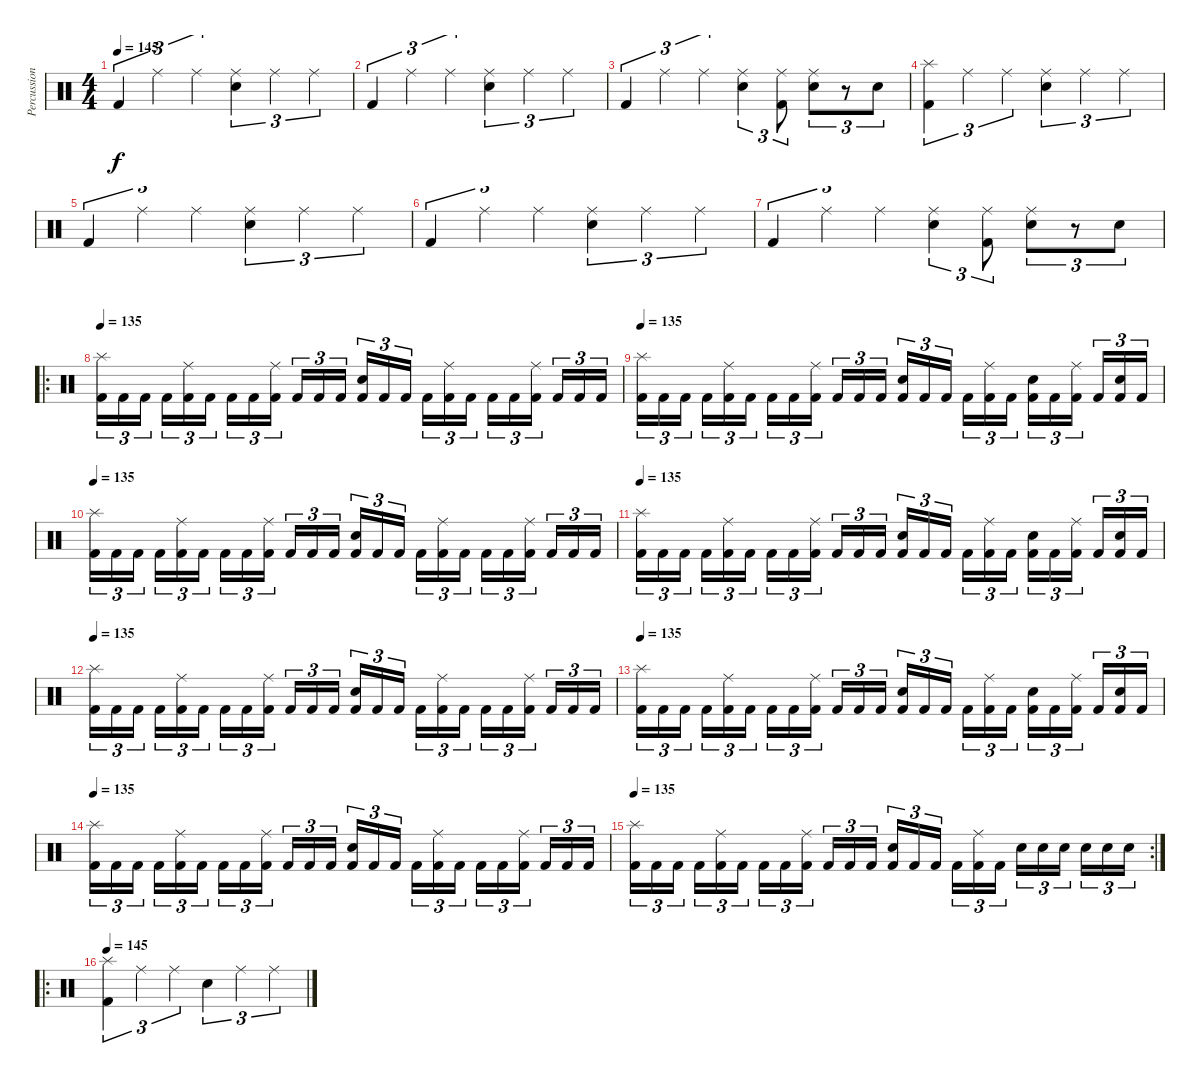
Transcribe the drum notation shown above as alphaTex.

\track ("Percussions" "Percussion") {instrument percussion}
\staff {score}
\articulation defaults
\ts (4 4)
\tempo 145
\clef neutral
\ks c "Kick (hit) 2".4{tu (3 2) dy f} "Ride (middle)".4{tu (3 2)} "Ride (middle)".4{tu (3 2)}
("Ride (middle)" "Electric Snare (hit)").4{tu (3 2)} "Ride (middle)".4{tu (3 2)} "Ride (middle)".4{tu (3 2)} |
"Kick (hit) 2".4{tu (3 2)} "Ride (middle)".4{tu (3 2)} "Ride (middle)".4{tu (3 2)} ("Ride (middle)" "Electric Snare (hit)").4{tu (3 2)} "Ride (middle)".4{tu (3 2)} "Ride (middle)".4{tu (3 2)} |
"Kick (hit) 2".4{tu (3 2)} "Ride (middle)".4{tu (3 2)} "Ride (middle)".4{tu (3 2)} ("Ride (middle)" "Electric Snare (hit)").4{tu (3 2)} ("Ride (middle)" "Kick (hit) 2").8{tu (3 2)} ("Ride (middle)" "Electric Snare (hit)").8{tu (3 2)} r.8{tu (3 2)} "Electric Snare (hit)".8{tu (3 2)} |
("Splash (hit)" "Kick (hit) 2").4{tu (3 2)} "Ride (middle)".4{tu (3 2)} "Ride (middle)".4{tu (3 2)} ("Ride (middle)" "Electric Snare (hit)").4{tu (3 2)} "Ride (middle)".4{tu (3 2)} "Ride (middle)".4{tu (3 2)} |
"Kick (hit) 2".4{tu (3 2)} "Ride (middle)".4{tu (3 2)} "Ride (middle)".4{tu (3 2)} ("Ride (middle)" "Electric Snare (hit)").4{tu (3 2)} "Ride (middle)".4{tu (3 2)} "Ride (middle)".4{tu (3 2)} |
"Kick (hit) 2".4{tu (3 2)} "Ride (middle)".4{tu (3 2)} "Ride (middle)".4{tu (3 2)} ("Ride (middle)" "Electric Snare (hit)").4{tu (3 2)} "Ride (middle)".4{tu (3 2)} "Ride (middle)".4{tu (3 2)} |
"Kick (hit) 2".4{tu (3 2)} "Ride (middle)".4{tu (3 2)} "Ride (middle)".4{tu (3 2)} ("Ride (middle)" "Electric Snare (hit)").4{tu (3 2)} ("Ride (middle)" "Kick (hit) 2").8{tu (3 2)} ("Ride (middle)" "Electric Snare (hit)").8{tu (3 2)} r.8{tu (3 2)} "Electric Snare (hit)".8{tu (3 2)} |
\ro
\tempo 135
("Splash (hit)" "Kick (hit) 2").16{tu (3 2)} "Kick (hit) 2".16{tu (3 2)} "Kick (hit) 2".16{tu (3 2)} "Kick (hit) 2".16{tu (3 2)} ("Ride (middle)" "Kick (hit) 2").16{tu (3 2)} "Kick (hit) 2".16{tu (3 2)} "Kick (hit) 2".16{tu (3 2)} "Kick (hit) 2".16{tu (3 2)} ("Ride (middle)" "Kick (hit) 2").16{tu (3 2)} "Kick (hit) 2".16{tu (3 2)} "Kick (hit) 2".16{tu (3 2)} "Kick (hit) 2".16{tu (3 2)} ("Electric Snare (hit)" "Kick (hit) 2").16{tu (3 2)} "Kick (hit) 2".16{tu (3 2)} "Kick (hit) 2".16{tu (3 2)} "Kick (hit) 2".16{tu (3 2)} ("Ride (middle)" "Kick (hit) 2").16{tu (3 2)} "Kick (hit) 2".16{tu (3 2)} "Kick (hit) 2".16{tu (3 2)} "Kick (hit) 2".16{tu (3 2)} ("Ride (middle)" "Kick (hit) 2").16{tu (3 2)} "Kick (hit) 2".16{tu (3 2)} "Kick (hit) 2".16{tu (3 2)} "Kick (hit) 2".16{tu (3 2)} |
\tempo 135
("Splash (hit)" "Kick (hit) 2").16{tu (3 2)} "Kick (hit) 2".16{tu (3 2)} "Kick (hit) 2".16{tu (3 2)} "Kick (hit) 2".16{tu (3 2)} ("Ride (middle)" "Kick (hit) 2").16{tu (3 2)} "Kick (hit) 2".16{tu (3 2)} "Kick (hit) 2".16{tu (3 2)} "Kick (hit) 2".16{tu (3 2)} ("Ride (middle)" "Kick (hit) 2").16{tu (3 2)} "Kick (hit) 2".16{tu (3 2)} "Kick (hit) 2".16{tu (3 2)} "Kick (hit) 2".16{tu (3 2)} ("Electric Snare (hit)" "Kick (hit) 2").16{tu (3 2)} "Kick (hit) 2".16{tu (3 2)} "Kick (hit) 2".16{tu (3 2)} "Kick (hit) 2".16{tu (3 2)} ("Ride (middle)" "Kick (hit) 2").16{tu (3 2)} "Kick (hit) 2".16{tu (3 2)} ("Electric Snare (hit)" "Kick (hit) 2").16{tu (3 2)} "Kick (hit) 2".16{tu (3 2)} ("Ride (middle)" "Kick (hit) 2").16{tu (3 2)} "Kick (hit) 2".16{tu (3 2)} ("Electric Snare (hit)" "Kick (hit) 2").16{tu (3 2)} "Kick (hit) 2".16{tu (3 2)} |
\tempo 135
("Splash (hit)" "Kick (hit) 2").16{tu (3 2)} "Kick (hit) 2".16{tu (3 2)} "Kick (hit) 2".16{tu (3 2)} "Kick (hit) 2".16{tu (3 2)} ("Ride (middle)" "Kick (hit) 2").16{tu (3 2)} "Kick (hit) 2".16{tu (3 2)} "Kick (hit) 2".16{tu (3 2)} "Kick (hit) 2".16{tu (3 2)} ("Ride (middle)" "Kick (hit) 2").16{tu (3 2)} "Kick (hit) 2".16{tu (3 2)} "Kick (hit) 2".16{tu (3 2)} "Kick (hit) 2".16{tu (3 2)} ("Electric Snare (hit)" "Kick (hit) 2").16{tu (3 2)} "Kick (hit) 2".16{tu (3 2)} "Kick (hit) 2".16{tu (3 2)} "Kick (hit) 2".16{tu (3 2)} ("Ride (middle)" "Kick (hit) 2").16{tu (3 2)} "Kick (hit) 2".16{tu (3 2)} "Kick (hit) 2".16{tu (3 2)} "Kick (hit) 2".16{tu (3 2)} ("Ride (middle)" "Kick (hit) 2").16{tu (3 2)} "Kick (hit) 2".16{tu (3 2)} "Kick (hit) 2".16{tu (3 2)} "Kick (hit) 2".16{tu (3 2)} |
\tempo 135
("Splash (hit)" "Kick (hit) 2").16{tu (3 2)} "Kick (hit) 2".16{tu (3 2)} "Kick (hit) 2".16{tu (3 2)} "Kick (hit) 2".16{tu (3 2)} ("Ride (middle)" "Kick (hit) 2").16{tu (3 2)} "Kick (hit) 2".16{tu (3 2)} "Kick (hit) 2".16{tu (3 2)} "Kick (hit) 2".16{tu (3 2)} ("Ride (middle)" "Kick (hit) 2").16{tu (3 2)} "Kick (hit) 2".16{tu (3 2)} "Kick (hit) 2".16{tu (3 2)} "Kick (hit) 2".16{tu (3 2)} ("Electric Snare (hit)" "Kick (hit) 2").16{tu (3 2)} "Kick (hit) 2".16{tu (3 2)} "Kick (hit) 2".16{tu (3 2)} "Kick (hit) 2".16{tu (3 2)} ("Ride (middle)" "Kick (hit) 2").16{tu (3 2)} "Kick (hit) 2".16{tu (3 2)} ("Electric Snare (hit)" "Kick (hit) 2").16{tu (3 2)} "Kick (hit) 2".16{tu (3 2)} ("Ride (middle)" "Kick (hit) 2").16{tu (3 2)} "Kick (hit) 2".16{tu (3 2)} ("Electric Snare (hit)" "Kick (hit) 2").16{tu (3 2)} "Kick (hit) 2".16{tu (3 2)} |
\tempo 135
("Splash (hit)" "Kick (hit) 2").16{tu (3 2)} "Kick (hit) 2".16{tu (3 2)} "Kick (hit) 2".16{tu (3 2)} "Kick (hit) 2".16{tu (3 2)} ("Ride (middle)" "Kick (hit) 2").16{tu (3 2)} "Kick (hit) 2".16{tu (3 2)} "Kick (hit) 2".16{tu (3 2)} "Kick (hit) 2".16{tu (3 2)} ("Ride (middle)" "Kick (hit) 2").16{tu (3 2)} "Kick (hit) 2".16{tu (3 2)} "Kick (hit) 2".16{tu (3 2)} "Kick (hit) 2".16{tu (3 2)} ("Electric Snare (hit)" "Kick (hit) 2").16{tu (3 2)} "Kick (hit) 2".16{tu (3 2)} "Kick (hit) 2".16{tu (3 2)} "Kick (hit) 2".16{tu (3 2)} ("Ride (middle)" "Kick (hit) 2").16{tu (3 2)} "Kick (hit) 2".16{tu (3 2)} "Kick (hit) 2".16{tu (3 2)} "Kick (hit) 2".16{tu (3 2)} ("Ride (middle)" "Kick (hit) 2").16{tu (3 2)} "Kick (hit) 2".16{tu (3 2)} "Kick (hit) 2".16{tu (3 2)} "Kick (hit) 2".16{tu (3 2)} |
\tempo 135
("Splash (hit)" "Kick (hit) 2").16{tu (3 2)} "Kick (hit) 2".16{tu (3 2)} "Kick (hit) 2".16{tu (3 2)} "Kick (hit) 2".16{tu (3 2)} ("Ride (middle)" "Kick (hit) 2").16{tu (3 2)} "Kick (hit) 2".16{tu (3 2)} "Kick (hit) 2".16{tu (3 2)} "Kick (hit) 2".16{tu (3 2)} ("Ride (middle)" "Kick (hit) 2").16{tu (3 2)} "Kick (hit) 2".16{tu (3 2)} "Kick (hit) 2".16{tu (3 2)} "Kick (hit) 2".16{tu (3 2)} ("Electric Snare (hit)" "Kick (hit) 2").16{tu (3 2)} "Kick (hit) 2".16{tu (3 2)} "Kick (hit) 2".16{tu (3 2)} "Kick (hit) 2".16{tu (3 2)} ("Ride (middle)" "Kick (hit) 2").16{tu (3 2)} "Kick (hit) 2".16{tu (3 2)} ("Electric Snare (hit)" "Kick (hit) 2").16{tu (3 2)} "Kick (hit) 2".16{tu (3 2)} ("Ride (middle)" "Kick (hit) 2").16{tu (3 2)} "Kick (hit) 2".16{tu (3 2)} ("Electric Snare (hit)" "Kick (hit) 2").16{tu (3 2)} "Kick (hit) 2".16{tu (3 2)} |
\tempo 135
("Splash (hit)" "Kick (hit) 2").16{tu (3 2)} "Kick (hit) 2".16{tu (3 2)} "Kick (hit) 2".16{tu (3 2)} "Kick (hit) 2".16{tu (3 2)} ("Ride (middle)" "Kick (hit) 2").16{tu (3 2)} "Kick (hit) 2".16{tu (3 2)} "Kick (hit) 2".16{tu (3 2)} "Kick (hit) 2".16{tu (3 2)} ("Ride (middle)" "Kick (hit) 2").16{tu (3 2)} "Kick (hit) 2".16{tu (3 2)} "Kick (hit) 2".16{tu (3 2)} "Kick (hit) 2".16{tu (3 2)} ("Electric Snare (hit)" "Kick (hit) 2").16{tu (3 2)} "Kick (hit) 2".16{tu (3 2)} "Kick (hit) 2".16{tu (3 2)} "Kick (hit) 2".16{tu (3 2)} ("Ride (middle)" "Kick (hit) 2").16{tu (3 2)} "Kick (hit) 2".16{tu (3 2)} "Kick (hit) 2".16{tu (3 2)} "Kick (hit) 2".16{tu (3 2)} ("Ride (middle)" "Kick (hit) 2").16{tu (3 2)} "Kick (hit) 2".16{tu (3 2)} "Kick (hit) 2".16{tu (3 2)} "Kick (hit) 2".16{tu (3 2)} |
\rc 2
\tempo 135
("Splash (hit)" "Kick (hit) 2").16{tu (3 2)} "Kick (hit) 2".16{tu (3 2)} "Kick (hit) 2".16{tu (3 2)} "Kick (hit) 2".16{tu (3 2)} ("Ride (middle)" "Kick (hit) 2").16{tu (3 2)} "Kick (hit) 2".16{tu (3 2)} "Kick (hit) 2".16{tu (3 2)} "Kick (hit) 2".16{tu (3 2)} ("Ride (middle)" "Kick (hit) 2").16{tu (3 2)} "Kick (hit) 2".16{tu (3 2)} "Kick (hit) 2".16{tu (3 2)} "Kick (hit) 2".16{tu (3 2)} ("Electric Snare (hit)" "Kick (hit) 2").16{tu (3 2)} "Kick (hit) 2".16{tu (3 2)} "Kick (hit) 2".16{tu (3 2)} "Kick (hit) 2".16{tu (3 2)} ("Ride (middle)" "Kick (hit) 2").16{tu (3 2)} "Kick (hit) 2".16{tu (3 2)} "Electric Snare (hit)".16{tu (3 2)} "Electric Snare (hit)".16{tu (3 2)} "Electric Snare (hit)".16{tu (3 2)} "Electric Snare (hit)".16{tu (3 2)} "Electric Snare (hit)".16{tu (3 2)} "Electric Snare (hit)".16{tu (3 2)} |
\ro
\tempo 145
("Splash (hit)" "Kick (hit) 2").4{tu (3 2)} "Ride (middle)".4{tu (3 2)} "Ride (middle)".4{tu (3 2)} "Electric Snare (hit)".4{tu (3 2)} "Ride (middle)".4{tu (3 2)} "Ride (middle)".4{tu (3 2)}
